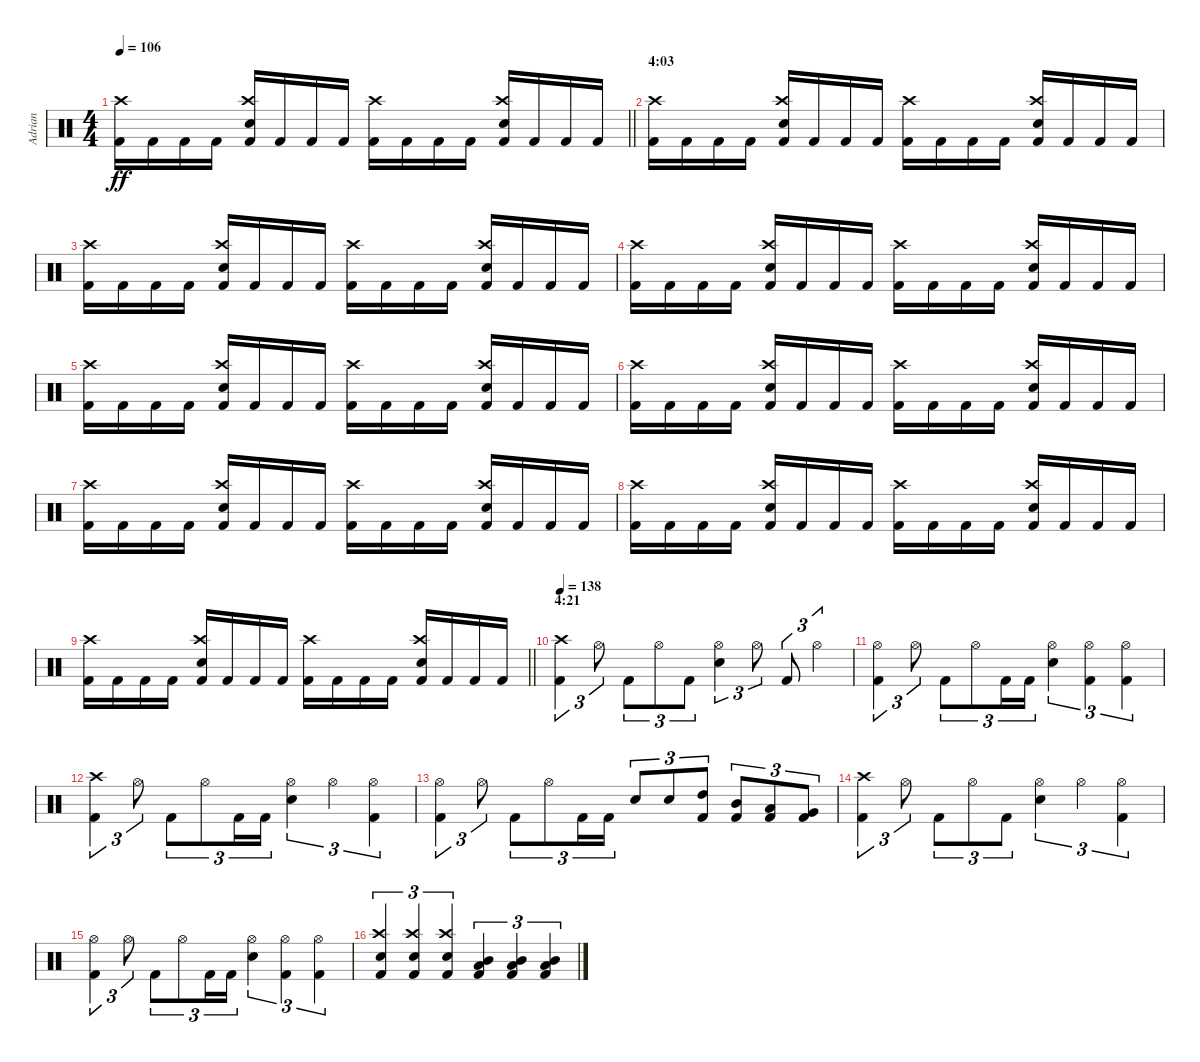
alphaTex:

\track ("Adrian" "Adrian") {instrument percussion}
\staff {score}
\articulation defaults
\ts (4 4)
\tempo 106
\clef neutral
\barLineRight lightlight
\ks c
("Kick (hit) 2" "Crash high (hit)").16{dy ff} "Kick (hit) 2".16 "Kick (hit) 2".16 "Kick (hit) 2".16 ("Kick (hit) 2" "Snare (hit) 2" "Crash high (hit)").16 "Kick (hit) 2".16 "Kick (hit) 2".16 "Kick (hit) 2".16 ("Kick (hit) 2" "Crash high (hit)").16 "Kick (hit) 2".16 "Kick (hit) 2".16 "Kick (hit) 2".16 ("Kick (hit) 2" "Snare (hit) 2" "Crash high (hit)").16 "Kick (hit) 2".16 "Kick (hit) 2".16 "Kick (hit) 2".16 |
\section ("" "4:03")
("Kick (hit) 2" "Crash high (hit)").16 "Kick (hit) 2".16 "Kick (hit) 2".16 "Kick (hit) 2".16 ("Kick (hit) 2" "Snare (hit) 2" "Crash high (hit)").16 "Kick (hit) 2".16 "Kick (hit) 2".16 "Kick (hit) 2".16 ("Kick (hit) 2" "Crash high (hit)").16 "Kick (hit) 2".16 "Kick (hit) 2".16 "Kick (hit) 2".16 ("Kick (hit) 2" "Snare (hit) 2" "Crash high (hit)").16 "Kick (hit) 2".16 "Kick (hit) 2".16 "Kick (hit) 2".16 |
("Kick (hit) 2" "Crash high (hit)").16 "Kick (hit) 2".16 "Kick (hit) 2".16 "Kick (hit) 2".16 ("Kick (hit) 2" "Snare (hit) 2" "Crash high (hit)").16 "Kick (hit) 2".16 "Kick (hit) 2".16 "Kick (hit) 2".16 ("Kick (hit) 2" "Crash high (hit)").16 "Kick (hit) 2".16 "Kick (hit) 2".16 "Kick (hit) 2".16 ("Kick (hit) 2" "Snare (hit) 2" "Crash high (hit)").16 "Kick (hit) 2".16 "Kick (hit) 2".16 "Kick (hit) 2".16 |
("Kick (hit) 2" "Crash high (hit)").16 "Kick (hit) 2".16 "Kick (hit) 2".16 "Kick (hit) 2".16 ("Kick (hit) 2" "Snare (hit) 2" "Crash high (hit)").16 "Kick (hit) 2".16 "Kick (hit) 2".16 "Kick (hit) 2".16 ("Kick (hit) 2" "Crash high (hit)").16 "Kick (hit) 2".16 "Kick (hit) 2".16 "Kick (hit) 2".16 ("Kick (hit) 2" "Snare (hit) 2" "Crash high (hit)").16 "Kick (hit) 2".16 "Kick (hit) 2".16 "Kick (hit) 2".16 |
("Kick (hit) 2" "Crash high (hit)").16 "Kick (hit) 2".16 "Kick (hit) 2".16 "Kick (hit) 2".16 ("Kick (hit) 2" "Snare (hit) 2" "Crash high (hit)").16 "Kick (hit) 2".16 "Kick (hit) 2".16 "Kick (hit) 2".16 ("Kick (hit) 2" "Crash high (hit)").16 "Kick (hit) 2".16 "Kick (hit) 2".16 "Kick (hit) 2".16 ("Kick (hit) 2" "Snare (hit) 2" "Crash high (hit)").16 "Kick (hit) 2".16 "Kick (hit) 2".16 "Kick (hit) 2".16 |
("Kick (hit) 2" "Crash high (hit)").16 "Kick (hit) 2".16 "Kick (hit) 2".16 "Kick (hit) 2".16 ("Kick (hit) 2" "Snare (hit) 2" "Crash high (hit)").16 "Kick (hit) 2".16 "Kick (hit) 2".16 "Kick (hit) 2".16 ("Kick (hit) 2" "Crash high (hit)").16 "Kick (hit) 2".16 "Kick (hit) 2".16 "Kick (hit) 2".16 ("Kick (hit) 2" "Snare (hit) 2" "Crash high (hit)").16 "Kick (hit) 2".16 "Kick (hit) 2".16 "Kick (hit) 2".16 |
("Kick (hit) 2" "Crash high (hit)").16 "Kick (hit) 2".16 "Kick (hit) 2".16 "Kick (hit) 2".16 ("Kick (hit) 2" "Snare (hit) 2" "Crash high (hit)").16 "Kick (hit) 2".16 "Kick (hit) 2".16 "Kick (hit) 2".16 ("Kick (hit) 2" "Crash high (hit)").16 "Kick (hit) 2".16 "Kick (hit) 2".16 "Kick (hit) 2".16 ("Kick (hit) 2" "Snare (hit) 2" "Crash high (hit)").16 "Kick (hit) 2".16 "Kick (hit) 2".16 "Kick (hit) 2".16 |
("Kick (hit) 2" "Crash high (hit)").16 "Kick (hit) 2".16 "Kick (hit) 2".16 "Kick (hit) 2".16 ("Kick (hit) 2" "Snare (hit) 2" "Crash high (hit)").16 "Kick (hit) 2".16 "Kick (hit) 2".16 "Kick (hit) 2".16 ("Kick (hit) 2" "Crash high (hit)").16 "Kick (hit) 2".16 "Kick (hit) 2".16 "Kick (hit) 2".16 ("Kick (hit) 2" "Snare (hit) 2" "Crash high (hit)").16 "Kick (hit) 2".16 "Kick (hit) 2".16 "Kick (hit) 2".16 |
\barLineRight lightlight
("Kick (hit) 2" "Crash high (hit)").16 "Kick (hit) 2".16 "Kick (hit) 2".16 "Kick (hit) 2".16 ("Kick (hit) 2" "Snare (hit) 2" "Crash high (hit)").16 "Kick (hit) 2".16 "Kick (hit) 2".16 "Kick (hit) 2".16 ("Kick (hit) 2" "Crash high (hit)").16 "Kick (hit) 2".16 "Kick (hit) 2".16 "Kick (hit) 2".16 ("Kick (hit) 2" "Snare (hit) 2" "Crash high (hit)").16 "Kick (hit) 2".16 "Kick (hit) 2".16 "Kick (hit) 2".16 |
\section ("" "4:21")
\tempo 138
("Kick (hit) 2" "Crash high (hit)").4{tu (3 2)} "Hi-Hat (open)".8{tu (3 2)} "Kick (hit) 2".8{tu (3 2)} "Hi-Hat (open)".8{tu (3 2)} "Kick (hit) 2".8{tu (3 2)} ("Snare (hit) 2" "Hi-Hat (open)").4{tu (3 2)} "Hi-Hat (open)".8{tu (3 2)} "Kick (hit) 2".8{tu (3 2)} "Hi-Hat (open)".4{tu (3 2)} |
("Kick (hit) 2" "Hi-Hat (open)").4{tu (3 2)} "Hi-Hat (open)".8{tu (3 2)} "Kick (hit) 2".8{tu (3 2)} "Hi-Hat (open)".8{tu (3 2)} "Kick (hit) 2".16{tu (3 2)} "Kick (hit) 2".16{tu (3 2)} ("Snare (hit) 2" "Hi-Hat (open)").4{tu (3 2)} ("Kick (hit) 2" "Hi-Hat (open)").4{tu (3 2)} ("Kick (hit) 2" "Hi-Hat (open)").4{tu (3 2)} |
("Kick (hit) 2" "Crash high (hit)").4{tu (3 2)} "Hi-Hat (open)".8{tu (3 2)} "Kick (hit) 2".8{tu (3 2)} "Hi-Hat (open)".8{tu (3 2)} "Kick (hit) 2".16{tu (3 2)} "Kick (hit) 2".16{tu (3 2)} ("Snare (hit) 2" "Hi-Hat (open)").4{tu (3 2)} "Hi-Hat (open)".4{tu (3 2)} ("Kick (hit) 2" "Hi-Hat (open)").4{tu (3 2)} |
("Kick (hit) 2" "Hi-Hat (open)").4{tu (3 2)} "Hi-Hat (open)".8{tu (3 2)} "Kick (hit) 2".8{tu (3 2)} "Hi-Hat (open)".8{tu (3 2)} "Kick (hit) 2".16{tu (3 2)} "Kick (hit) 2".16{tu (3 2)} "Snare (hit) 2".8{tu (3 2)} "Snare (hit) 2".8{tu (3 2)} ("Kick (hit) 2" "High Tom (hit)").8{tu (3 2)} ("Kick (hit) 2" "Mid Tom (hit)").8{tu (3 2)} ("Kick (hit) 2" "Low Tom (hit)").8{tu (3 2)} ("Kick (hit) 2" "Very Low Tom (hit)").8{tu (3 2)} |
("Kick (hit) 2" "Crash high (hit)").4{tu (3 2)} "Hi-Hat (open)".8{tu (3 2)} "Kick (hit) 2".8{tu (3 2)} "Hi-Hat (open)".8{tu (3 2)} "Kick (hit) 2".8{tu (3 2)} ("Snare (hit) 2" "Hi-Hat (open)").4{tu (3 2)} "Hi-Hat (open)".4{tu (3 2)} ("Kick (hit) 2" "Hi-Hat (open)").4{tu (3 2)} |
("Kick (hit) 2" "Hi-Hat (open)").4{tu (3 2)} "Hi-Hat (open)".8{tu (3 2)} "Kick (hit) 2".8{tu (3 2)} "Hi-Hat (open)".8{tu (3 2)} "Kick (hit) 2".16{tu (3 2)} "Kick (hit) 2".16{tu (3 2)} ("Snare (hit) 2" "Hi-Hat (open)").4{tu (3 2)} ("Kick (hit) 2" "Hi-Hat (open)").4{tu (3 2)} ("Kick (hit) 2" "Hi-Hat (open)").4{tu (3 2)} |
("Kick (hit) 2" "Snare (hit) 2" "Crash high (hit)").4{tu (3 2)} ("Kick (hit) 2" "Snare (hit) 2" "Crash high (hit)").4{tu (3 2)} ("Kick (hit) 2" "Snare (hit) 2" "Crash high (hit)").4{tu (3 2)} ("Kick (hit) 2" "Low Tom (hit)" "Mid Tom (hit)").4{tu (3 2)} ("Kick (hit) 2" "Low Tom (hit)" "Mid Tom (hit)").4{tu (3 2)} ("Kick (hit) 2" "Low Tom (hit)" "Mid Tom (hit)").4{tu (3 2)}
